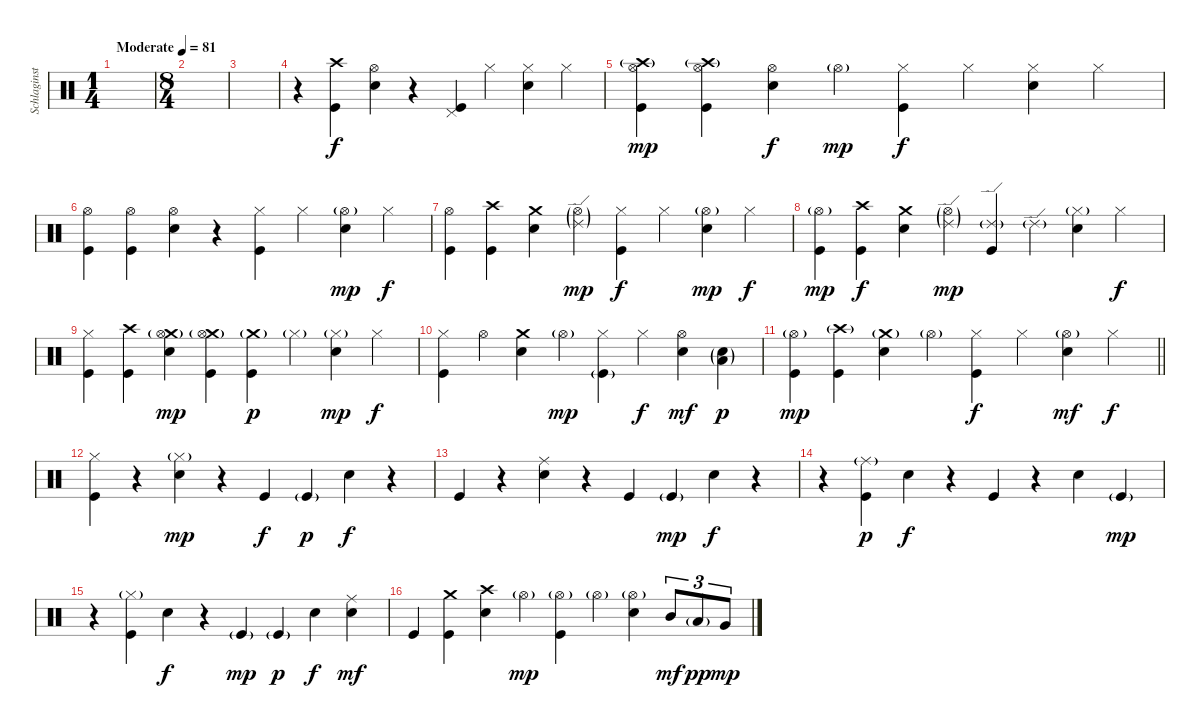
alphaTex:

\track ("Schlaginstrumente - Auswahl" "Schlaginst") {instrument percussion}
\staff {score}
\articulation defaults
\ts (1 4)
\tempo (81 "Moderate")
\clef neutral
\ks c
|
\ts (8 4)
|
|
r.4 ("Kick (hit)" "Crash high (hit)").4 ("Snare (hit) 2" "Hi-Hat (open)").4 r.4 ("Kick (hit)" "Pedal Hi-Hat (hit)").4 "Hi-Hat (closed)".4 ("Snare (hit) 2" "Hi-Hat (closed)").4 "Hi-Hat (closed)".4 |
("Kick (hit)" "Hi-Hat (open)" "Crash high (hit)"{g}).4{dy mp} ("Kick (hit)" "Hi-Hat (open)" "Crash high (hit)"{g}).4 ("Snare (hit) 2" "Hi-Hat (open)").4{dy f} "Hi-Hat (open)"{g}.4{dy mp} ("Kick (hit)" "Hi-Hat (closed)").4{dy f} "Hi-Hat (closed)".4 ("Snare (hit) 2" "Hi-Hat (closed)").4 "Hi-Hat (closed)".4 |
("Hi-Hat (open)" "Kick (hit)").4 ("Kick (hit)" "Hi-Hat (open)").4 ("Snare (hit) 2" "Hi-Hat (open)").4 r.4 ("Hi-Hat (closed)" "Kick (hit)").4 "Hi-Hat (closed)".4 ("Hi-Hat (open)"{g} "Snare (hit) 2").4{dy mp} "Hi-Hat (closed)".4{dy f} |
("Hi-Hat (open)" "Kick (hit)").4 ("Crash high (hit)" "Kick (hit)").4 ("Snare (hit) 2" "Crash medium (hit)").4 ("Ride (edge) 2"{g} "Hi-Hat (open)"{g}).4{dy mp} ("Hi-Hat (closed)" "Kick (hit)").4{dy f} "Hi-Hat (closed)".4 ("Hi-Hat (open)"{g} "Snare (hit) 2").4{dy mp} "Hi-Hat (closed)".4{dy f} |
("Hi-Hat (open)"{g} "Kick (hit)").4{dy mp} ("Crash high (hit)" "Kick (hit)").4{dy f} ("Snare (hit) 2" "Crash medium (hit)").4 ("Ride (edge) 2"{g} "Hi-Hat (open)"{g}).4{dy mp} ("Ride (edge) 2"{g} "Kick (hit)").4 "Ride (edge) 2"{g}.4 ("Hi-Hat (closed)"{g} "Snare (hit) 2").4 "Hi-Hat (closed)".4{dy f} |
("Hi-Hat (closed)" "Kick (hit)").4 ("Crash high (hit)" "Kick (hit)").4 ("Snare (hit) 2" "Crash medium (hit)" "Hi-Hat (open)"{g}).4{dy mp} ("Crash medium (hit)"{g} "Kick (hit)" "Hi-Hat (open)"{g}).4 ("Crash medium (hit)"{g} "Kick (hit)").4{dy p} "Hi-Hat (closed)"{g}.4 ("Hi-Hat (closed)"{g} "Snare (hit) 2").4{dy mp} "Hi-Hat (closed)".4{dy f} |
("Hi-Hat (closed)" "Kick (hit)").4 "Hi-Hat (open)".4 ("Snare (hit) 2" "Crash medium (hit)").4 "Hi-Hat (open)"{g}.4{dy mp} ("Hi-Hat (closed)" "Kick (hit)"{g}).4 "Hi-Hat (closed)".4{dy f} ("Snare (hit) 2" "Hi-Hat (open)").4{dy mf} ("Low Tom (hit)"{g} "Snare (hit) 2"{g}).4{dy p} |
\barLineRight lightlight
("Hi-Hat (open)"{g} "Kick (hit)").4{dy mp} ("Crash high (hit)"{g} "Kick (hit)").4 ("Snare (hit) 2" "Crash medium (hit)"{g}).4 "Hi-Hat (open)"{g}.4 ("Hi-Hat (closed)" "Kick (hit)").4{dy f} "Hi-Hat (closed)".4 ("Hi-Hat (open)"{g} "Snare (hit) 2").4{dy mf} "Hi-Hat (closed)".4{dy f} |
\section ("" "")
("Hi-Hat (closed)" "Kick (hit)").4 r.4 ("Snare (hit) 2" "Hi-Hat (closed)"{g}).4{dy mp} r.4 "Kick (hit)".4{dy f} "Kick (hit)"{g}.4{dy p} "Snare (hit) 2".4{dy f} r.4 |
"Kick (hit)".4 r.4 ("Snare (hit) 2" "Ride (middle)").4 r.4 "Kick (hit)".4 "Kick (hit)"{g}.4{dy mp} "Snare (hit) 2".4{dy f} r.4 |
r.4 ("Kick (hit)" "Ride (middle)"{g}).4{dy p} "Snare (hit) 2".4{dy f} r.4 "Kick (hit)".4 r.4 "Snare (hit) 2".4 "Kick (hit)"{g}.4{dy mp} |
r.4 ("Kick (hit)" "Hi-Hat (closed)"{g}).4 "Snare (hit) 2".4{dy f} r.4 "Kick (hit)"{g}.4{dy mp} "Kick (hit)"{g}.4{dy p} "Snare (hit) 2".4{dy f} ("Snare (hit) 2" "Ride (middle)").4{dy mf} |
"Kick (hit)".4 ("Crash medium (hit)" "Kick (hit)").4 ("Crash high (hit)" "Snare (hit) 2").4 "Hi-Hat (open)"{g}.4{dy mp} ("Hi-Hat (open)"{g} "Kick (hit)").4 "Hi-Hat (open)"{g}.4 ("Hi-Hat (open)"{g} "Snare (hit) 2").4 "Mid Tom (hit)".8{tu (3 2) dy mf} "Low Tom (hit)"{g}.8{tu (3 2) dy pp} "Very Low Tom (hit)".8{tu (3 2) dy mp}
